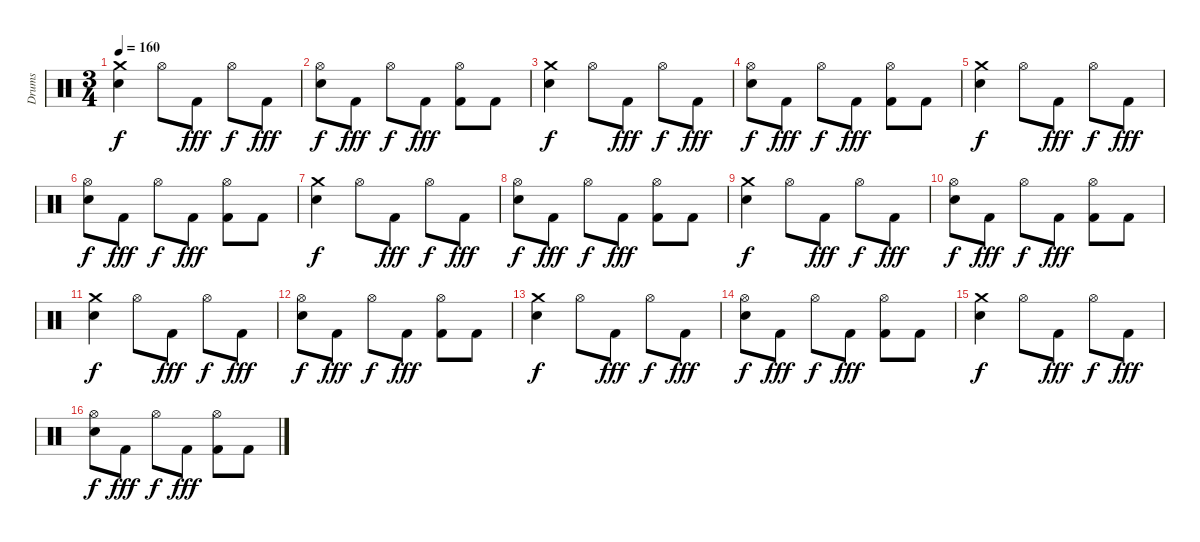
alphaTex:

\track ("Drums" "Drums") {instrument percussion}
\staff {score}
\articulation defaults
\ts (3 4)
\tempo 160
\clef neutral
\ks c
("Crash medium (hit)" "Electric Snare (hit)").4{dy f} "Hi-Hat (open)".8 "Kick (hit) 2".8{dy fff} "Hi-Hat (open)".8{dy f} "Kick (hit) 2".8{dy fff} |
("Hi-Hat (open)" "Electric Snare (hit)").8{dy f} "Kick (hit) 2".8{dy fff} "Hi-Hat (open)".8{dy f} "Kick (hit) 2".8{dy fff} ("Hi-Hat (open)" "Kick (hit) 2").8 "Kick (hit) 2".8 |
("Crash medium (hit)" "Electric Snare (hit)").4{dy f} "Hi-Hat (open)".8 "Kick (hit) 2".8{dy fff} "Hi-Hat (open)".8{dy f} "Kick (hit) 2".8{dy fff} |
("Hi-Hat (open)" "Electric Snare (hit)").8{dy f} "Kick (hit) 2".8{dy fff} "Hi-Hat (open)".8{dy f} "Kick (hit) 2".8{dy fff} ("Hi-Hat (open)" "Kick (hit) 2").8 "Kick (hit) 2".8 |
("Crash medium (hit)" "Electric Snare (hit)").4{dy f} "Hi-Hat (open)".8 "Kick (hit) 2".8{dy fff} "Hi-Hat (open)".8{dy f} "Kick (hit) 2".8{dy fff} |
("Hi-Hat (open)" "Electric Snare (hit)").8{dy f} "Kick (hit) 2".8{dy fff} "Hi-Hat (open)".8{dy f} "Kick (hit) 2".8{dy fff} ("Hi-Hat (open)" "Kick (hit) 2").8 "Kick (hit) 2".8 |
("Crash medium (hit)" "Electric Snare (hit)").4{dy f} "Hi-Hat (open)".8 "Kick (hit) 2".8{dy fff} "Hi-Hat (open)".8{dy f} "Kick (hit) 2".8{dy fff} |
("Hi-Hat (open)" "Electric Snare (hit)").8{dy f} "Kick (hit) 2".8{dy fff} "Hi-Hat (open)".8{dy f} "Kick (hit) 2".8{dy fff} ("Hi-Hat (open)" "Kick (hit) 2").8 "Kick (hit) 2".8 |
("Crash medium (hit)" "Electric Snare (hit)").4{dy f} "Hi-Hat (open)".8 "Kick (hit) 2".8{dy fff} "Hi-Hat (open)".8{dy f} "Kick (hit) 2".8{dy fff} |
("Hi-Hat (open)" "Electric Snare (hit)").8{dy f} "Kick (hit) 2".8{dy fff} "Hi-Hat (open)".8{dy f} "Kick (hit) 2".8{dy fff} ("Hi-Hat (open)" "Kick (hit) 2").8 "Kick (hit) 2".8 |
("Crash medium (hit)" "Electric Snare (hit)").4{dy f} "Hi-Hat (open)".8 "Kick (hit) 2".8{dy fff} "Hi-Hat (open)".8{dy f} "Kick (hit) 2".8{dy fff} |
("Hi-Hat (open)" "Electric Snare (hit)").8{dy f} "Kick (hit) 2".8{dy fff} "Hi-Hat (open)".8{dy f} "Kick (hit) 2".8{dy fff} ("Hi-Hat (open)" "Kick (hit) 2").8 "Kick (hit) 2".8 |
("Crash medium (hit)" "Electric Snare (hit)").4{dy f} "Hi-Hat (open)".8 "Kick (hit) 2".8{dy fff} "Hi-Hat (open)".8{dy f} "Kick (hit) 2".8{dy fff} |
("Hi-Hat (open)" "Electric Snare (hit)").8{dy f} "Kick (hit) 2".8{dy fff} "Hi-Hat (open)".8{dy f} "Kick (hit) 2".8{dy fff} ("Hi-Hat (open)" "Kick (hit) 2").8 "Kick (hit) 2".8 |
("Crash medium (hit)" "Electric Snare (hit)").4{dy f} "Hi-Hat (open)".8 "Kick (hit) 2".8{dy fff} "Hi-Hat (open)".8{dy f} "Kick (hit) 2".8{dy fff} |
("Hi-Hat (open)" "Electric Snare (hit)").8{dy f} "Kick (hit) 2".8{dy fff} "Hi-Hat (open)".8{dy f} "Kick (hit) 2".8{dy fff} ("Hi-Hat (open)" "Kick (hit) 2").8 "Kick (hit) 2".8
